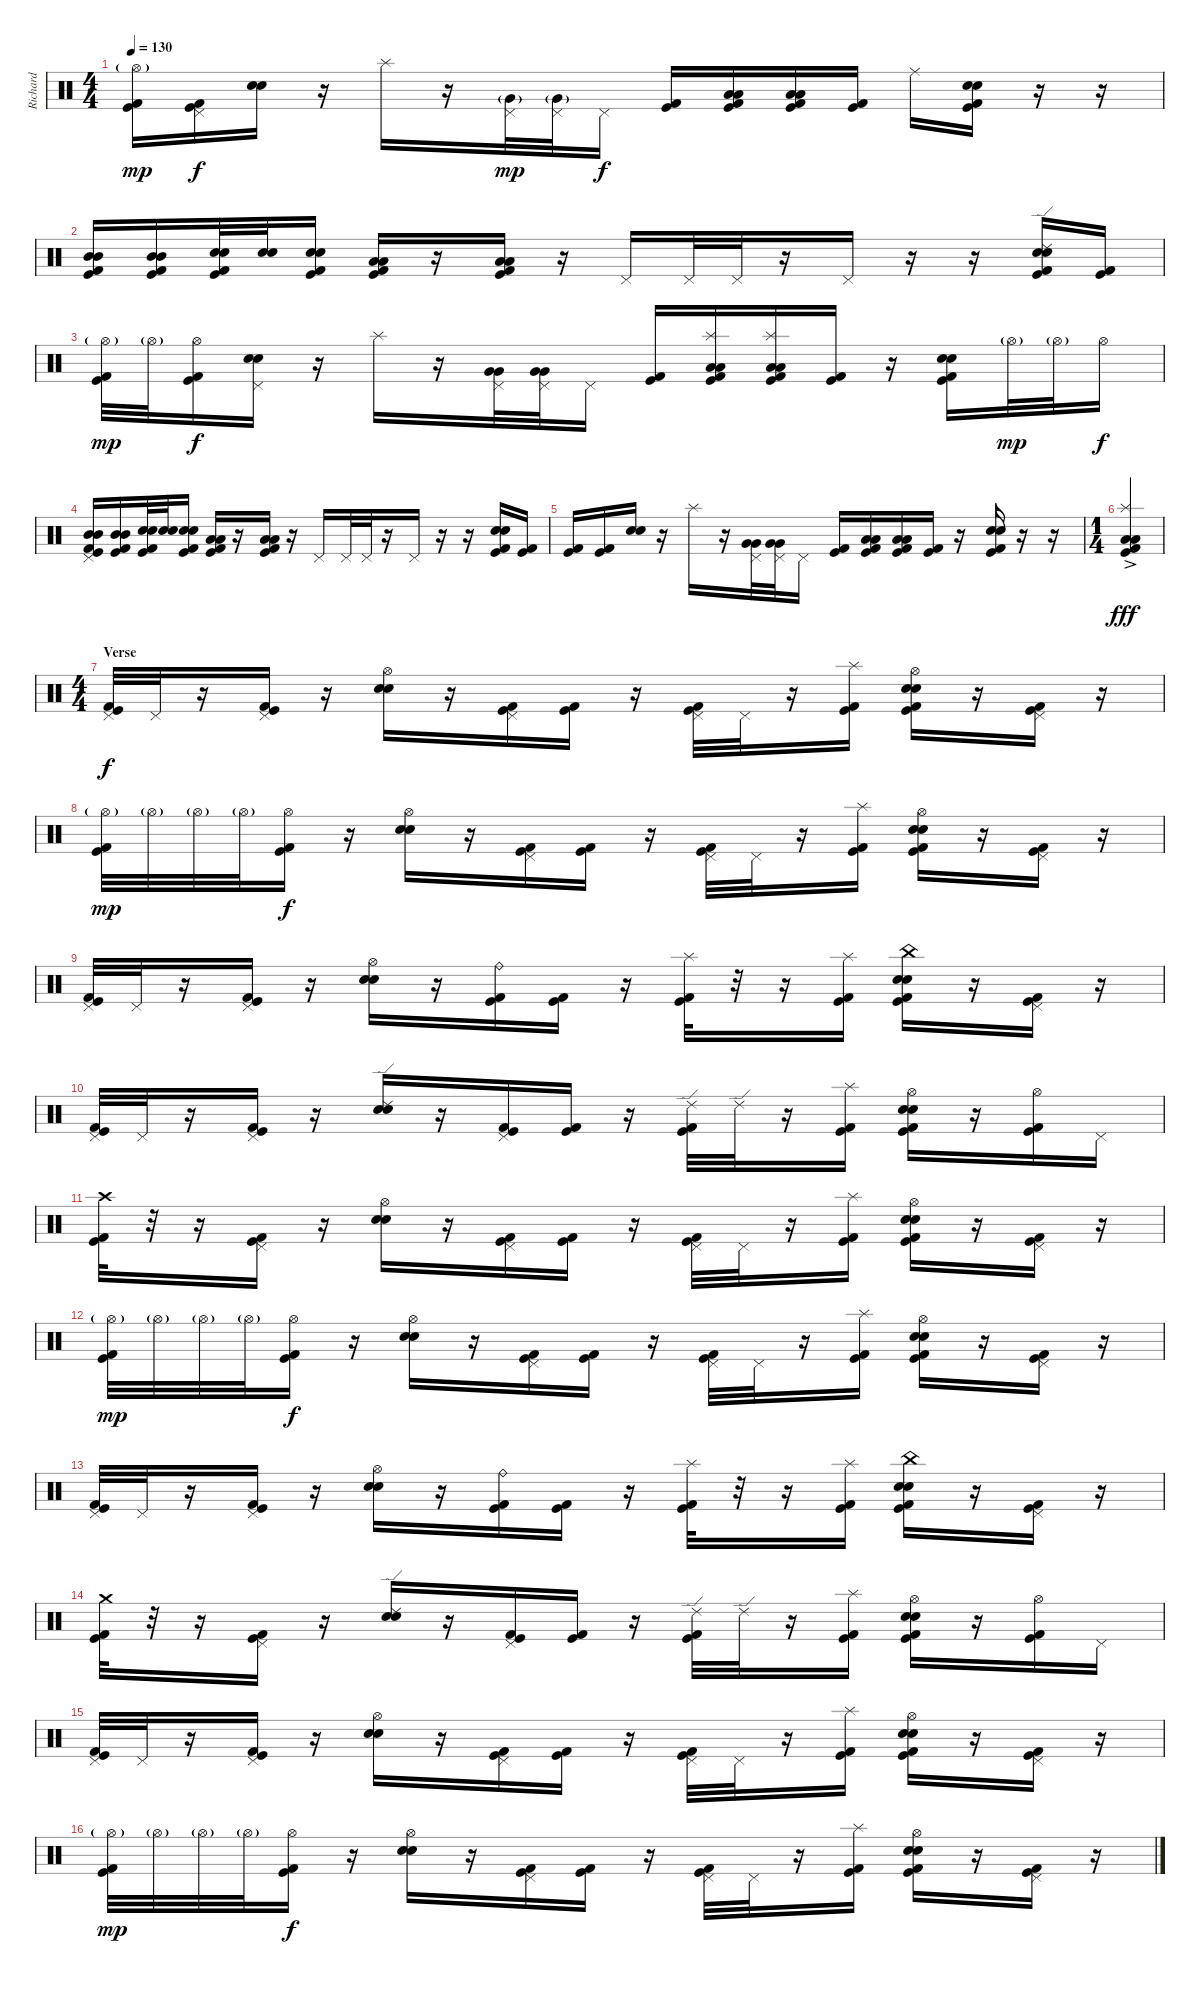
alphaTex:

\track ("Richard" "Richard") {instrument percussion}
\staff {score}
\articulation defaults
\ts (4 4)
\tempo 130
\clef neutral
\ks c
("Hi-Hat (open)"{g} "Kick (hit)" "Kick (hit) 2").16{dy mp} ("Pedal Hi-Hat (hit)" "Kick (hit)" "Kick (hit) 2").16{dy f} ("Snare (hit) 2" "Electric Snare (hit)").16 r.16 "Splash (hit)".16 r.16 ("Pedal Hi-Hat (hit)" "Very Low Tom (hit)"{g}).32{dy mp} ("Pedal Hi-Hat (hit)" "Very Low Tom (hit)"{g}).32 "Pedal Hi-Hat (hit)".16{dy f} ("Kick (hit)" "Kick (hit) 2").16 ("Low Tom (hit)" "Low Tom (hit)" "Kick (hit)" "Kick (hit) 2").16 ("Low Tom (hit)" "Low Tom (hit)" "Kick (hit)" "Kick (hit) 2").16 ("Kick (hit)" "Kick (hit) 2").16 "Ride (middle)".16 ("Snare (hit) 2" "Electric Snare (hit)" "Kick (hit)" "Kick (hit) 2").16 r.16 r.16 |
("Mid Tom (hit)" "Mid Tom (hit)" "Kick (hit)" "Kick (hit) 2").16 ("Mid Tom (hit)" "Mid Tom (hit)" "Kick (hit)" "Kick (hit) 2").16 ("Snare (hit) 2" "Electric Snare (hit)" "Kick (hit)" "Kick (hit) 2").32 ("Snare (hit) 2" "Electric Snare (hit)").32 ("Snare (hit) 2" "Electric Snare (hit)" "Kick (hit)" "Kick (hit) 2").16 ("Low Tom (hit)" "Low Tom (hit)" "Kick (hit)" "Kick (hit) 2").16 r.16 ("Low Tom (hit)" "Low Tom (hit)" "Kick (hit)" "Kick (hit) 2").16 r.16 "Pedal Hi-Hat (hit)".16 "Pedal Hi-Hat (hit)".32 "Pedal Hi-Hat (hit)".32 r.16 "Pedal Hi-Hat (hit)".16 r.16 r.16 ("Ride (edge) 2" "Snare (hit) 2" "Electric Snare (hit)" "Kick (hit)" "Kick (hit) 2").16 ("Kick (hit)" "Kick (hit) 2").16 |
("Hi-Hat (open)"{g} "Kick (hit)" "Kick (hit) 2").32{dy mp} "Hi-Hat (open)"{g}.32 ("Hi-Hat (open)" "Kick (hit)" "Kick (hit) 2").16{dy f} ("Pedal Hi-Hat (hit)" "Snare (hit) 2" "Electric Snare (hit)").16 r.16 "Splash (hit)".16 r.16 ("Pedal Hi-Hat (hit)" "Very Low Tom (hit)" "Very Low Tom (hit)").32 ("Pedal Hi-Hat (hit)" "Very Low Tom (hit)" "Very Low Tom (hit)").32 "Pedal Hi-Hat (hit)".16 ("Kick (hit)" "Kick (hit) 2").16 ("Splash (hit)" "Low Tom (hit)" "Low Tom (hit)" "Kick (hit)" "Kick (hit) 2").16 ("Splash (hit)" "Low Tom (hit)" "Low Tom (hit)" "Kick (hit)" "Kick (hit) 2").16 ("Kick (hit)" "Kick (hit) 2").16 r.16 ("Snare (hit) 2" "Electric Snare (hit)" "Kick (hit)" "Kick (hit) 2").16 "Hi-Hat (open)"{g}.32{dy mp} "Hi-Hat (open)"{g}.32 "Hi-Hat (open)".16{dy f} |
("Pedal Hi-Hat (hit)" "Mid Tom (hit)" "Mid Tom (hit)" "Kick (hit)" "Kick (hit) 2").16 ("Mid Tom (hit)" "Mid Tom (hit)" "Kick (hit)" "Kick (hit) 2").16 ("Snare (hit) 2" "Electric Snare (hit)" "Kick (hit)" "Kick (hit) 2").32 ("Snare (hit) 2" "Electric Snare (hit)").32 ("Snare (hit) 2" "Electric Snare (hit)" "Kick (hit)" "Kick (hit) 2").16 ("Low Tom (hit)" "Low Tom (hit)" "Kick (hit)" "Kick (hit) 2").16 r.16 ("Low Tom (hit)" "Low Tom (hit)" "Kick (hit)" "Kick (hit) 2").16 r.16 "Pedal Hi-Hat (hit)".16 "Pedal Hi-Hat (hit)".32 "Pedal Hi-Hat (hit)".32 r.16 "Pedal Hi-Hat (hit)".16 r.16 r.16 ("Snare (hit) 2" "Electric Snare (hit)" "Kick (hit)" "Kick (hit) 2").16 ("Kick (hit)" "Kick (hit) 2").16 |
("Kick (hit)" "Kick (hit) 2").16 ("Kick (hit)" "Kick (hit) 2").16 ("Snare (hit) 2" "Electric Snare (hit)").16 r.16 "Splash (hit)".16 r.16 ("Pedal Hi-Hat (hit)" "Very Low Tom (hit)" "Very Low Tom (hit)").32 ("Pedal Hi-Hat (hit)" "Very Low Tom (hit)" "Very Low Tom (hit)").32 "Pedal Hi-Hat (hit)".16 ("Kick (hit)" "Kick (hit) 2").16 ("Low Tom (hit)" "Low Tom (hit)" "Kick (hit)" "Kick (hit) 2").16 ("Low Tom (hit)" "Low Tom (hit)" "Kick (hit)" "Kick (hit) 2").16 ("Kick (hit)" "Kick (hit) 2").16 r.16 ("Snare (hit) 2" "Electric Snare (hit)" "Kick (hit)" "Kick (hit) 2").16 r.16 r.16 |
\ts (1 4)
("Splash (hit)" "Low Floor Tom (hit)" "Low Floor Tom (hit)" "Kick (hit) 2"{ac} "Kick (hit)"{ac}).4{dy fff} |
\ts (4 4)
\section ("" "Verse")
("Pedal Hi-Hat (hit)" "Kick (hit)" "Kick (hit) 2").32{dy f} "Pedal Hi-Hat (hit)".32 r.16 ("Pedal Hi-Hat (hit)" "Kick (hit)" "Kick (hit) 2").16 r.16 ("Hi-Hat (open)" "Snare (hit) 2" "Electric Snare (hit)").16 r.16 ("Pedal Hi-Hat (hit)" "Kick (hit)" "Kick (hit) 2").16 ("Kick (hit)" "Kick (hit) 2").16 r.16 ("Pedal Hi-Hat (hit)" "Kick (hit)" "Kick (hit) 2").32 "Pedal Hi-Hat (hit)".32 r.16 ("Splash (hit)" "Kick (hit)" "Kick (hit) 2").16 ("Hi-Hat (open)" "Snare (hit) 2" "Electric Snare (hit)" "Kick (hit)" "Kick (hit) 2").16 r.16 ("Pedal Hi-Hat (hit)" "Kick (hit)" "Kick (hit) 2").16 r.16 |
("Hi-Hat (open)"{g} "Kick (hit)" "Kick (hit) 2").32{dy mp} "Hi-Hat (open)"{g}.32 "Hi-Hat (open)"{g}.32 "Hi-Hat (open)"{g}.32 ("Hi-Hat (open)" "Kick (hit)" "Kick (hit) 2").16{dy f} r.16 ("Hi-Hat (open)" "Snare (hit) 2" "Electric Snare (hit)").16 r.16 ("Pedal Hi-Hat (hit)" "Kick (hit)" "Kick (hit) 2").16 ("Kick (hit)" "Kick (hit) 2").16 r.16 ("Pedal Hi-Hat (hit)" "Kick (hit)" "Kick (hit) 2").32 "Pedal Hi-Hat (hit)".32 r.16 ("Splash (hit)" "Kick (hit)" "Kick (hit) 2").16 ("Hi-Hat (open)" "Snare (hit) 2" "Electric Snare (hit)" "Kick (hit)" "Kick (hit) 2").16 r.16 ("Pedal Hi-Hat (hit)" "Kick (hit)" "Kick (hit) 2").16 r.16 |
("Pedal Hi-Hat (hit)" "Kick (hit)" "Kick (hit) 2").32 "Pedal Hi-Hat (hit)".32 r.16 ("Pedal Hi-Hat (hit)" "Kick (hit)" "Kick (hit) 2").16 r.16 ("Hi-Hat (open)" "Snare (hit) 2" "Electric Snare (hit)").16 r.16 ("Ride (bell)" "Kick (hit)" "Kick (hit) 2").16 ("Kick (hit)" "Kick (hit) 2").16 r.16 ("Splash (hit)" "Kick (hit)" "Kick (hit) 2").32 r.32 r.16 ("Splash (hit)" "Kick (hit)" "Kick (hit) 2").16 ("China (hit)" "Snare (hit) 2" "Electric Snare (hit)" "Kick (hit)" "Kick (hit) 2").16 r.16 ("Pedal Hi-Hat (hit)" "Kick (hit)" "Kick (hit) 2").16 r.16 |
("Pedal Hi-Hat (hit)" "Kick (hit)" "Kick (hit) 2").32 "Pedal Hi-Hat (hit)".32 r.16 ("Pedal Hi-Hat (hit)" "Kick (hit)" "Kick (hit) 2").16 r.16 ("Ride (edge) 2" "Snare (hit) 2" "Electric Snare (hit)").16 r.16 ("Pedal Hi-Hat (hit)" "Kick (hit)" "Kick (hit) 2").16 ("Kick (hit)" "Kick (hit) 2").16 r.16 ("Ride (edge) 2" "Kick (hit)" "Kick (hit) 2").32 "Ride (edge) 2".32 r.16 ("Splash (hit)" "Kick (hit)" "Kick (hit) 2").16 ("Hi-Hat (open)" "Snare (hit) 2" "Electric Snare (hit)" "Kick (hit)" "Kick (hit) 2").16 r.16 ("Hi-Hat (open)" "Kick (hit)" "Kick (hit) 2").16 "Pedal Hi-Hat (hit)".16 |
("Crash high (hit)" "Kick (hit)" "Kick (hit) 2").32 r.32 r.16 ("Pedal Hi-Hat (hit)" "Kick (hit)" "Kick (hit) 2").16 r.16 ("Hi-Hat (open)" "Snare (hit) 2" "Electric Snare (hit)").16 r.16 ("Pedal Hi-Hat (hit)" "Kick (hit)" "Kick (hit) 2").16 ("Kick (hit)" "Kick (hit) 2").16 r.16 ("Pedal Hi-Hat (hit)" "Kick (hit)" "Kick (hit) 2").32 "Pedal Hi-Hat (hit)".32 r.16 ("Splash (hit)" "Kick (hit)" "Kick (hit) 2").16 ("Hi-Hat (open)" "Snare (hit) 2" "Electric Snare (hit)" "Kick (hit)" "Kick (hit) 2").16 r.16 ("Pedal Hi-Hat (hit)" "Kick (hit)" "Kick (hit) 2").16 r.16 |
("Hi-Hat (open)"{g} "Kick (hit)" "Kick (hit) 2").32{dy mp} "Hi-Hat (open)"{g}.32 "Hi-Hat (open)"{g}.32 "Hi-Hat (open)"{g}.32 ("Hi-Hat (open)" "Kick (hit)" "Kick (hit) 2").16{dy f} r.16 ("Hi-Hat (open)" "Snare (hit) 2" "Electric Snare (hit)").16 r.16 ("Pedal Hi-Hat (hit)" "Kick (hit)" "Kick (hit) 2").16 ("Kick (hit)" "Kick (hit) 2").16 r.16 ("Pedal Hi-Hat (hit)" "Kick (hit)" "Kick (hit) 2").32 "Pedal Hi-Hat (hit)".32 r.16 ("Splash (hit)" "Kick (hit)" "Kick (hit) 2").16 ("Hi-Hat (open)" "Snare (hit) 2" "Electric Snare (hit)" "Kick (hit)" "Kick (hit) 2").16 r.16 ("Pedal Hi-Hat (hit)" "Kick (hit)" "Kick (hit) 2").16 r.16 |
("Pedal Hi-Hat (hit)" "Kick (hit)" "Kick (hit) 2").32 "Pedal Hi-Hat (hit)".32 r.16 ("Pedal Hi-Hat (hit)" "Kick (hit)" "Kick (hit) 2").16 r.16 ("Hi-Hat (open)" "Snare (hit) 2" "Electric Snare (hit)").16 r.16 ("Ride (bell)" "Kick (hit)" "Kick (hit) 2").16 ("Kick (hit)" "Kick (hit) 2").16 r.16 ("Splash (hit)" "Kick (hit)" "Kick (hit) 2").32 r.32 r.16 ("Splash (hit)" "Kick (hit)" "Kick (hit) 2").16 ("China (hit)" "Snare (hit) 2" "Electric Snare (hit)" "Kick (hit)" "Kick (hit) 2").16 r.16 ("Pedal Hi-Hat (hit)" "Kick (hit)" "Kick (hit) 2").16 r.16 |
("Crash medium (hit)" "Kick (hit)" "Kick (hit) 2").32 r.32 r.16 ("Pedal Hi-Hat (hit)" "Kick (hit)" "Kick (hit) 2").16 r.16 ("Ride (edge) 2" "Snare (hit) 2" "Electric Snare (hit)").16 r.16 ("Pedal Hi-Hat (hit)" "Kick (hit)" "Kick (hit) 2").16 ("Kick (hit)" "Kick (hit) 2").16 r.16 ("Ride (edge) 2" "Kick (hit)" "Kick (hit) 2").32 "Ride (edge) 2".32 r.16 ("Splash (hit)" "Kick (hit)" "Kick (hit) 2").16 ("Hi-Hat (open)" "Snare (hit) 2" "Electric Snare (hit)" "Kick (hit)" "Kick (hit) 2").16 r.16 ("Hi-Hat (open)" "Kick (hit)" "Kick (hit) 2").16 "Pedal Hi-Hat (hit)".16 |
("Pedal Hi-Hat (hit)" "Kick (hit)" "Kick (hit) 2").32 "Pedal Hi-Hat (hit)".32 r.16 ("Pedal Hi-Hat (hit)" "Kick (hit)" "Kick (hit) 2").16 r.16 ("Hi-Hat (open)" "Snare (hit) 2" "Electric Snare (hit)").16 r.16 ("Pedal Hi-Hat (hit)" "Kick (hit)" "Kick (hit) 2").16 ("Kick (hit)" "Kick (hit) 2").16 r.16 ("Pedal Hi-Hat (hit)" "Kick (hit)" "Kick (hit) 2").32 "Pedal Hi-Hat (hit)".32 r.16 ("Splash (hit)" "Kick (hit)" "Kick (hit) 2").16 ("Hi-Hat (open)" "Snare (hit) 2" "Electric Snare (hit)" "Kick (hit)" "Kick (hit) 2").16 r.16 ("Pedal Hi-Hat (hit)" "Kick (hit)" "Kick (hit) 2").16 r.16 |
("Hi-Hat (open)"{g} "Kick (hit)" "Kick (hit) 2").32{dy mp} "Hi-Hat (open)"{g}.32 "Hi-Hat (open)"{g}.32 "Hi-Hat (open)"{g}.32 ("Hi-Hat (open)" "Kick (hit)" "Kick (hit) 2").16{dy f} r.16 ("Hi-Hat (open)" "Snare (hit) 2" "Electric Snare (hit)").16 r.16 ("Pedal Hi-Hat (hit)" "Kick (hit)" "Kick (hit) 2").16 ("Kick (hit)" "Kick (hit) 2").16 r.16 ("Pedal Hi-Hat (hit)" "Kick (hit)" "Kick (hit) 2").32 "Pedal Hi-Hat (hit)".32 r.16 ("Splash (hit)" "Kick (hit)" "Kick (hit) 2").16 ("Hi-Hat (open)" "Snare (hit) 2" "Electric Snare (hit)" "Kick (hit)" "Kick (hit) 2").16 r.16 ("Pedal Hi-Hat (hit)" "Kick (hit)" "Kick (hit) 2").16 r.16
